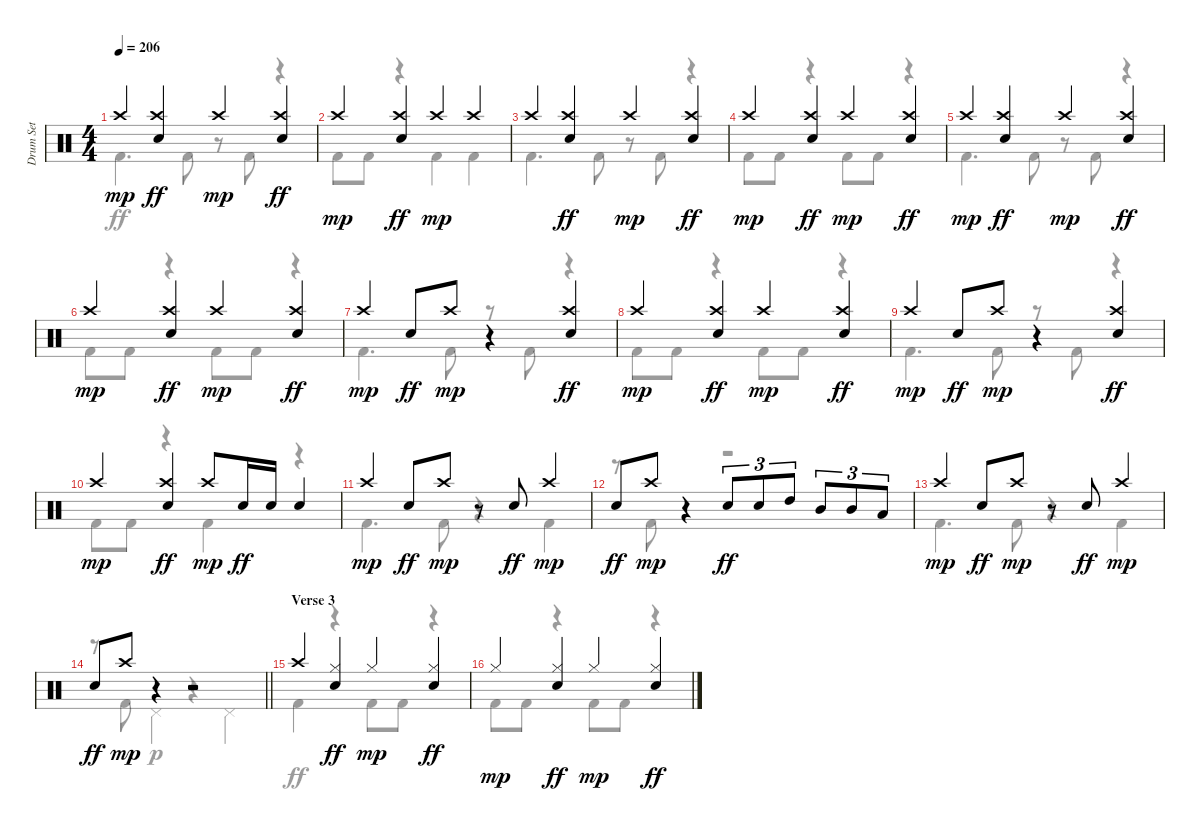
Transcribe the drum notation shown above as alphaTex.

\track ("Drum Set" "Drum Set") {instrument percussion}
\staff {score}
\articulation defaults
\voice
\ts (4 4)
\tempo 206
\clef neutral
\ks c "Crash high (hit)".4{dy mp}
("Crash high (hit)" "Electric Snare (hit)").4{dy ff} "Crash high (hit)".4{dy mp} ("Crash high (hit)" "Electric Snare (hit)").4{dy ff} |
"Crash high (hit)".4{dy mp} ("Crash high (hit)" "Electric Snare (hit)").4{dy ff} "Crash high (hit)".4{dy mp} "Crash high (hit)".4 |
"Crash high (hit)".4 ("Crash high (hit)" "Electric Snare (hit)").4{dy ff} "Crash high (hit)".4{dy mp} ("Crash high (hit)" "Electric Snare (hit)").4{dy ff} |
"Crash high (hit)".4{dy mp} ("Crash high (hit)" "Electric Snare (hit)").4{dy ff} "Crash high (hit)".4{dy mp} ("Crash high (hit)" "Electric Snare (hit)").4{dy ff} |
"Crash high (hit)".4{dy mp} ("Crash high (hit)" "Electric Snare (hit)").4{dy ff} "Crash high (hit)".4{dy mp} ("Crash high (hit)" "Electric Snare (hit)").4{dy ff} |
"Crash high (hit)".4{dy mp} ("Crash high (hit)" "Electric Snare (hit)").4{dy ff} "Crash high (hit)".4{dy mp} ("Crash high (hit)" "Electric Snare (hit)").4{dy ff} |
"Crash high (hit)".4{dy mp} "Electric Snare (hit)".8{dy ff} "Crash high (hit)".8{dy mp} r.4 ("Crash high (hit)" "Electric Snare (hit)").4{dy ff} |
"Crash high (hit)".4{dy mp} ("Crash high (hit)" "Electric Snare (hit)").4{dy ff} "Crash high (hit)".4{dy mp} ("Crash high (hit)" "Electric Snare (hit)").4{dy ff} |
"Crash high (hit)".4{dy mp} "Electric Snare (hit)".8{dy ff} "Crash high (hit)".8{dy mp} r.4 ("Crash high (hit)" "Electric Snare (hit)").4{dy ff} |
"Crash high (hit)".4{dy mp} ("Crash high (hit)" "Electric Snare (hit)").4{dy ff} "Crash high (hit)".8{dy mp} "Electric Snare (hit)".16{dy ff} "Electric Snare (hit)".16 "Electric Snare (hit)".4 |
"Crash high (hit)".4{dy mp} "Electric Snare (hit)".8{dy ff} "Crash high (hit)".8{dy mp} r.8 "Electric Snare (hit)".8{dy ff} "Crash high (hit)".4{dy mp} |
"Electric Snare (hit)".8{dy ff} "Crash high (hit)".8{dy mp} r.4 "Electric Snare (hit)".8{tu (3 2) dy ff} "Electric Snare (hit)".8{tu (3 2)} "High Tom (hit)".8{tu (3 2)} "Mid Tom (hit)".8{tu (3 2)} "Mid Tom (hit)".8{tu (3 2)} "Low Tom (hit)".8{tu (3 2)} |
"Crash high (hit)".4{dy mp} "Electric Snare (hit)".8{dy ff} "Crash high (hit)".8{dy mp} r.8 "Electric Snare (hit)".8{dy ff} "Crash high (hit)".4{dy mp} |
\barLineRight lightlight "Electric Snare (hit)".8{dy ff} "Crash high (hit)".8{dy mp}
r.4 r.2 |
\section ("" "Verse 3")
"Crash high (hit)".4 ("Hi-Hat (closed)" "Electric Snare (hit)").4{dy ff} "Hi-Hat (closed)".4{dy mp} ("Hi-Hat (closed)" "Electric Snare (hit)").4{dy ff} |
"Hi-Hat (closed)".4{dy mp} ("Hi-Hat (closed)" "Electric Snare (hit)").4{dy ff} "Hi-Hat (closed)".4{dy mp} ("Hi-Hat (closed)" "Electric Snare (hit)").4{dy ff}
\voice
\clef neutral
\ottava regular
\simile none
\ks c "Kick (hit) 2".4{d dy ff} "Kick (hit) 2".8
r.8 "Kick (hit) 2".8 r.4 |
"Kick (hit) 2".8 "Kick (hit) 2".8 r.4 "Kick (hit) 2".4 "Kick (hit) 2".4 |
"Kick (hit) 2".4{d} "Kick (hit) 2".8 r.8 "Kick (hit) 2".8 r.4 |
"Kick (hit) 2".8 "Kick (hit) 2".8 r.4 "Kick (hit) 2".8 "Kick (hit) 2".8 r.4 |
"Kick (hit) 2".4{d} "Kick (hit) 2".8 r.8 "Kick (hit) 2".8 r.4 |
"Kick (hit) 2".8 "Kick (hit) 2".8 r.4 "Kick (hit) 2".8 "Kick (hit) 2".8 r.4 |
"Kick (hit) 2".4{d} "Kick (hit) 2".8 r.8 "Kick (hit) 2".8 r.4 |
"Kick (hit) 2".8 "Kick (hit) 2".8 r.4 "Kick (hit) 2".8 "Kick (hit) 2".8 r.4 |
"Kick (hit) 2".4{d} "Kick (hit) 2".8 r.8 "Kick (hit) 2".8 r.4 |
"Kick (hit) 2".8 "Kick (hit) 2".8 r.4 "Kick (hit) 2".4 r.4 |
"Kick (hit) 2".4{d} "Kick (hit) 2".8 r.4 "Kick (hit) 2".4 |
r.8 "Kick (hit) 2".8 r.4 r.2 |
"Kick (hit) 2".4{d} "Kick (hit) 2".8 r.4 "Kick (hit) 2".4 |
\barLineRight lightlight
r.8 "Kick (hit) 2".8 "Pedal Hi-Hat (hit)".4{dy p} r.4 "Pedal Hi-Hat (hit)".4 |
"Kick (hit) 2".4{dy ff} r.4 "Kick (hit) 2".8 "Kick (hit) 2".8 r.4 |
"Kick (hit) 2".8 "Kick (hit) 2".8 r.4 "Kick (hit) 2".8 "Kick (hit) 2".8 r.4
